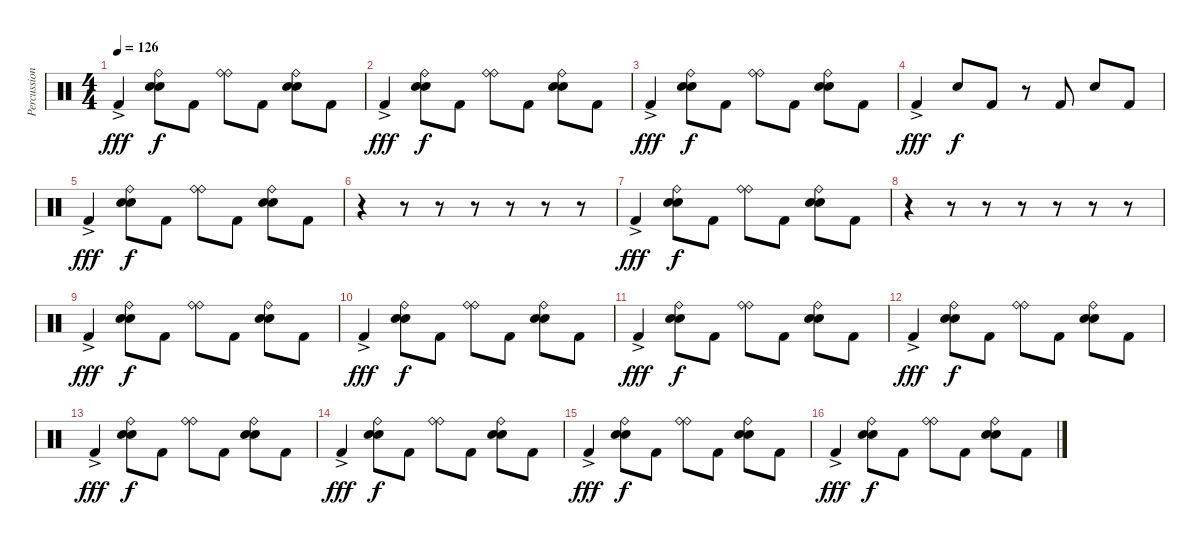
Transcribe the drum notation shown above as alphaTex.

\track ("Percussion" "Percussion") {instrument percussion}
\staff {score}
\articulation defaults
\ts (4 4)
\tempo 126
\clef neutral
\ks c "Kick (hit) 2"{ac}.4{dy fff}
("Snare (hit) 2" "Ride (bell)" "Snare (hit) 2").8{dy f} "Kick (hit) 2".8 ("Ride (bell)" "Ride (bell)").8 "Kick (hit) 2".8 ("Snare (hit) 2" "Ride (bell)" "Snare (hit) 2").8 "Kick (hit) 2".8 |
"Kick (hit) 2"{ac}.4{dy fff} ("Snare (hit) 2" "Ride (bell)" "Snare (hit) 2").8{dy f} "Kick (hit) 2".8 ("Ride (bell)" "Ride (bell)").8 "Kick (hit) 2".8 ("Snare (hit) 2" "Ride (bell)" "Snare (hit) 2").8 "Kick (hit) 2".8 |
"Kick (hit) 2"{ac}.4{dy fff} ("Snare (hit) 2" "Ride (bell)" "Snare (hit) 2").8{dy f} "Kick (hit) 2".8 ("Ride (bell)" "Ride (bell)").8 "Kick (hit) 2".8 ("Snare (hit) 2" "Ride (bell)" "Snare (hit) 2").8 "Kick (hit) 2".8 |
"Kick (hit) 2"{ac}.4{dy fff} "Snare (hit) 2".8{dy f} "Kick (hit) 2".8 r.8 "Kick (hit) 2".8 "Snare (hit) 2".8 "Kick (hit) 2".8 |
"Kick (hit) 2"{ac}.4{dy fff} ("Snare (hit) 2" "Ride (bell)" "Snare (hit) 2").8{dy f} "Kick (hit) 2".8 ("Ride (bell)" "Ride (bell)").8 "Kick (hit) 2".8 ("Snare (hit) 2" "Ride (bell)" "Snare (hit) 2").8 "Kick (hit) 2".8 |
r.4 r.8 r.8 r.8 r.8 r.8 r.8 |
"Kick (hit) 2"{ac}.4{dy fff} ("Snare (hit) 2" "Ride (bell)" "Snare (hit) 2").8{dy f} "Kick (hit) 2".8 ("Ride (bell)" "Ride (bell)").8 "Kick (hit) 2".8 ("Snare (hit) 2" "Ride (bell)" "Snare (hit) 2").8 "Kick (hit) 2".8 |
r.4 r.8 r.8 r.8 r.8 r.8 r.8 |
"Kick (hit) 2"{ac}.4{dy fff} ("Snare (hit) 2" "Ride (bell)" "Snare (hit) 2").8{dy f} "Kick (hit) 2".8 ("Ride (bell)" "Ride (bell)").8 "Kick (hit) 2".8 ("Snare (hit) 2" "Ride (bell)" "Snare (hit) 2").8 "Kick (hit) 2".8 |
"Kick (hit) 2"{ac}.4{dy fff} ("Snare (hit) 2" "Ride (bell)" "Snare (hit) 2").8{dy f} "Kick (hit) 2".8 ("Ride (bell)" "Ride (bell)").8 "Kick (hit) 2".8 ("Snare (hit) 2" "Ride (bell)" "Snare (hit) 2").8 "Kick (hit) 2".8 |
"Kick (hit) 2"{ac}.4{dy fff} ("Snare (hit) 2" "Ride (bell)" "Snare (hit) 2").8{dy f} "Kick (hit) 2".8 ("Ride (bell)" "Ride (bell)").8 "Kick (hit) 2".8 ("Snare (hit) 2" "Ride (bell)" "Snare (hit) 2").8 "Kick (hit) 2".8 |
"Kick (hit) 2"{ac}.4{dy fff} ("Snare (hit) 2" "Ride (bell)" "Snare (hit) 2").8{dy f} "Kick (hit) 2".8 ("Ride (bell)" "Ride (bell)").8 "Kick (hit) 2".8 ("Snare (hit) 2" "Ride (bell)" "Snare (hit) 2").8 "Kick (hit) 2".8 |
"Kick (hit) 2"{ac}.4{dy fff} ("Snare (hit) 2" "Ride (bell)" "Snare (hit) 2").8{dy f} "Kick (hit) 2".8 ("Ride (bell)" "Ride (bell)").8 "Kick (hit) 2".8 ("Snare (hit) 2" "Ride (bell)" "Snare (hit) 2").8 "Kick (hit) 2".8 |
"Kick (hit) 2"{ac}.4{dy fff} ("Snare (hit) 2" "Ride (bell)" "Snare (hit) 2").8{dy f} "Kick (hit) 2".8 ("Ride (bell)" "Ride (bell)").8 "Kick (hit) 2".8 ("Snare (hit) 2" "Ride (bell)" "Snare (hit) 2").8 "Kick (hit) 2".8 |
"Kick (hit) 2"{ac}.4{dy fff} ("Snare (hit) 2" "Ride (bell)" "Snare (hit) 2").8{dy f} "Kick (hit) 2".8 ("Ride (bell)" "Ride (bell)").8 "Kick (hit) 2".8 ("Snare (hit) 2" "Ride (bell)" "Snare (hit) 2").8 "Kick (hit) 2".8 |
"Kick (hit) 2"{ac}.4{dy fff} ("Snare (hit) 2" "Ride (bell)" "Snare (hit) 2").8{dy f} "Kick (hit) 2".8 ("Ride (bell)" "Ride (bell)").8 "Kick (hit) 2".8 ("Snare (hit) 2" "Ride (bell)" "Snare (hit) 2").8 "Kick (hit) 2".8
